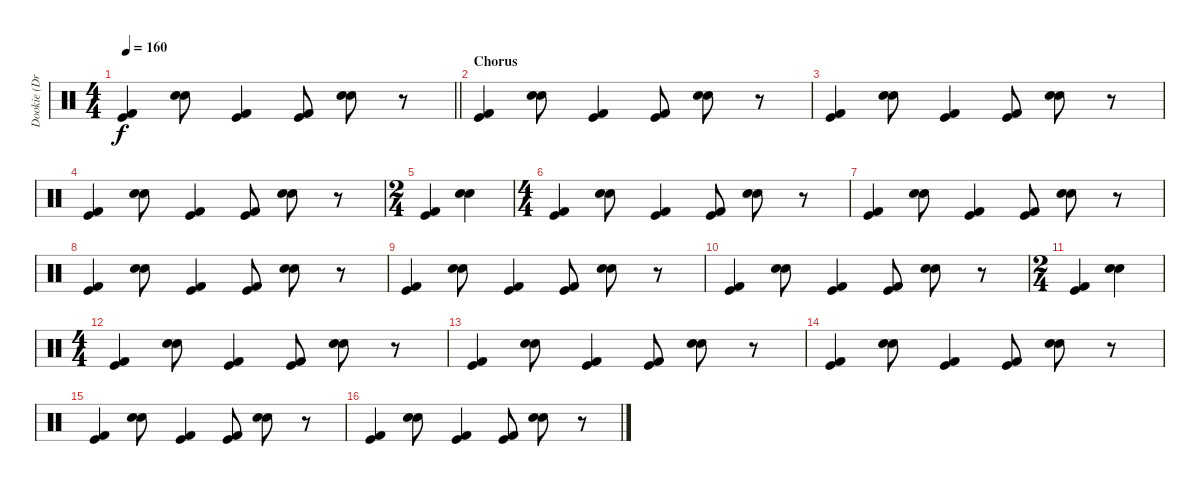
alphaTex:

\track ("Dookie (Drums)" "Dookie (Dr") {instrument percussion}
\staff {score}
\articulation defaults
\ts (4 4)
\tempo 160
\clef neutral
\barLineRight lightlight
\ks c
("Kick (hit) 2" "Kick (hit)").4{dy f} ("Electric Snare (hit)" "Electric Snare (hit)").8 ("Kick (hit) 2" "Kick (hit)").4 ("Kick (hit) 2" "Kick (hit)").8 ("Electric Snare (hit)" "Electric Snare (hit)").8 r.8 |
\section ("" "Chorus")
("Kick (hit) 2" "Kick (hit)").4 ("Electric Snare (hit)" "Electric Snare (hit)").8 ("Kick (hit) 2" "Kick (hit)").4 ("Kick (hit) 2" "Kick (hit)").8 ("Electric Snare (hit)" "Electric Snare (hit)").8 r.8 |
("Kick (hit) 2" "Kick (hit)").4 ("Electric Snare (hit)" "Electric Snare (hit)").8 ("Kick (hit) 2" "Kick (hit)").4 ("Kick (hit) 2" "Kick (hit)").8 ("Electric Snare (hit)" "Electric Snare (hit)").8 r.8 |
("Kick (hit) 2" "Kick (hit)").4 ("Electric Snare (hit)" "Electric Snare (hit)").8 ("Kick (hit) 2" "Kick (hit)").4 ("Kick (hit) 2" "Kick (hit)").8 ("Electric Snare (hit)" "Electric Snare (hit)").8 r.8 |
\ts (2 4)
("Kick (hit) 2" "Kick (hit)").4 ("Electric Snare (hit)" "Electric Snare (hit)").4 |
\ts (4 4)
("Kick (hit) 2" "Kick (hit)").4 ("Electric Snare (hit)" "Electric Snare (hit)").8 ("Kick (hit) 2" "Kick (hit)").4 ("Kick (hit) 2" "Kick (hit)").8 ("Electric Snare (hit)" "Electric Snare (hit)").8 r.8 |
("Kick (hit) 2" "Kick (hit)").4 ("Electric Snare (hit)" "Electric Snare (hit)").8 ("Kick (hit) 2" "Kick (hit)").4 ("Kick (hit) 2" "Kick (hit)").8 ("Electric Snare (hit)" "Electric Snare (hit)").8 r.8 |
("Kick (hit) 2" "Kick (hit)").4 ("Electric Snare (hit)" "Electric Snare (hit)").8 ("Kick (hit) 2" "Kick (hit)").4 ("Kick (hit) 2" "Kick (hit)").8 ("Electric Snare (hit)" "Electric Snare (hit)").8 r.8 |
("Kick (hit) 2" "Kick (hit)").4 ("Electric Snare (hit)" "Electric Snare (hit)").8 ("Kick (hit) 2" "Kick (hit)").4 ("Kick (hit) 2" "Kick (hit)").8 ("Electric Snare (hit)" "Electric Snare (hit)").8 r.8 |
("Kick (hit) 2" "Kick (hit)").4 ("Electric Snare (hit)" "Electric Snare (hit)").8 ("Kick (hit) 2" "Kick (hit)").4 ("Kick (hit) 2" "Kick (hit)").8 ("Electric Snare (hit)" "Electric Snare (hit)").8 r.8 |
\ts (2 4)
("Kick (hit) 2" "Kick (hit)").4 ("Electric Snare (hit)" "Electric Snare (hit)").4 |
\ts (4 4)
("Kick (hit) 2" "Kick (hit)").4 ("Electric Snare (hit)" "Electric Snare (hit)").8 ("Kick (hit) 2" "Kick (hit)").4 ("Kick (hit) 2" "Kick (hit)").8 ("Electric Snare (hit)" "Electric Snare (hit)").8 r.8 |
("Kick (hit) 2" "Kick (hit)").4 ("Electric Snare (hit)" "Electric Snare (hit)").8 ("Kick (hit) 2" "Kick (hit)").4 ("Kick (hit) 2" "Kick (hit)").8 ("Electric Snare (hit)" "Electric Snare (hit)").8 r.8 |
("Kick (hit) 2" "Kick (hit)").4 ("Electric Snare (hit)" "Electric Snare (hit)").8 ("Kick (hit) 2" "Kick (hit)").4 ("Kick (hit) 2" "Kick (hit)").8 ("Electric Snare (hit)" "Electric Snare (hit)").8 r.8 |
("Kick (hit) 2" "Kick (hit)").4 ("Electric Snare (hit)" "Electric Snare (hit)").8 ("Kick (hit) 2" "Kick (hit)").4 ("Kick (hit) 2" "Kick (hit)").8 ("Electric Snare (hit)" "Electric Snare (hit)").8 r.8 |
("Kick (hit) 2" "Kick (hit)").4 ("Electric Snare (hit)" "Electric Snare (hit)").8 ("Kick (hit) 2" "Kick (hit)").4 ("Kick (hit) 2" "Kick (hit)").8 ("Electric Snare (hit)" "Electric Snare (hit)").8 r.8
